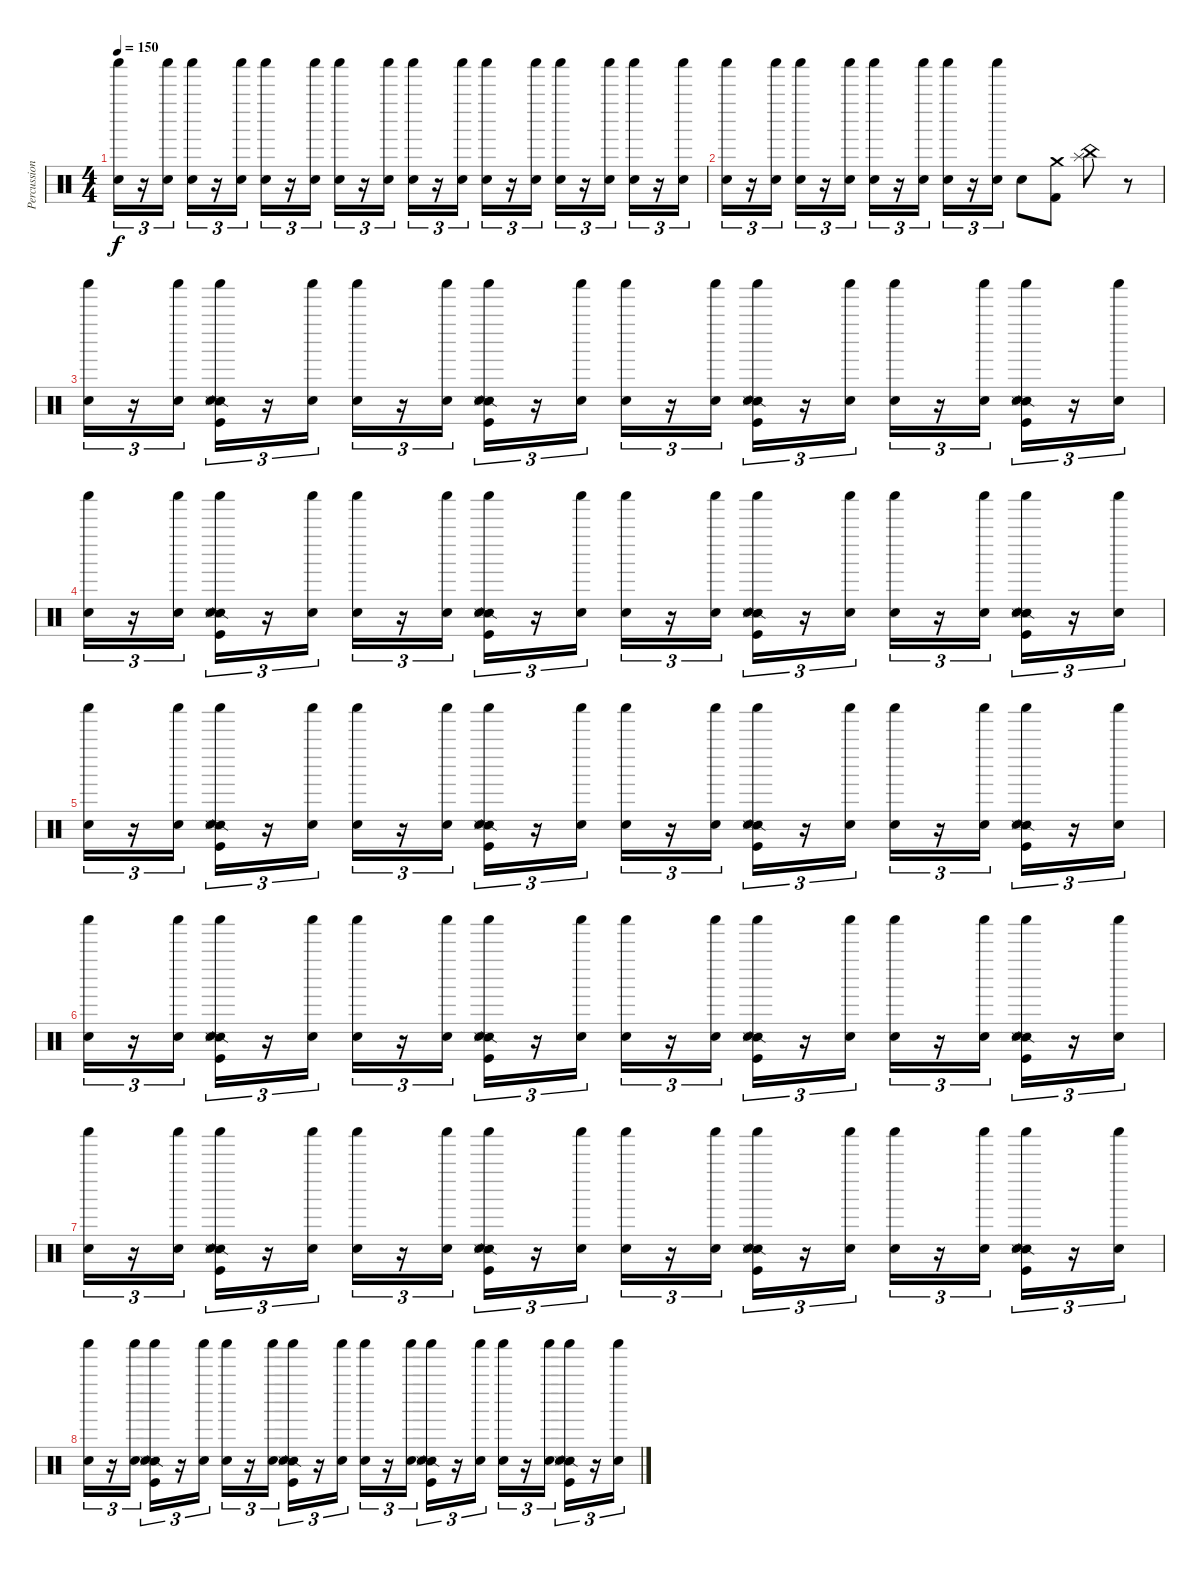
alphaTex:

\track ("Percussion" "Percussion") {instrument percussion}
\staff {score}
\articulation defaults
\ts (4 4)
\tempo 150
\clef neutral
\ks c
("Snare (hit) 2" "Shaker (hit)").16{tu (3 2) dy f} r.16{tu (3 2)} ("Snare (hit) 2" "Shaker (hit)").16{tu (3 2)} ("Snare (hit) 2" "Shaker (hit)").16{tu (3 2)} r.16{tu (3 2)} ("Snare (hit) 2" "Shaker (hit)").16{tu (3 2)} ("Snare (hit) 2" "Shaker (hit)").16{tu (3 2)} r.16{tu (3 2)} ("Snare (hit) 2" "Shaker (hit)").16{tu (3 2)} ("Snare (hit) 2" "Shaker (hit)").16{tu (3 2)} r.16{tu (3 2)} ("Snare (hit) 2" "Shaker (hit)").16{tu (3 2)} ("Snare (hit) 2" "Shaker (hit)").16{tu (3 2)} r.16{tu (3 2)} ("Snare (hit) 2" "Shaker (hit)").16{tu (3 2)} ("Snare (hit) 2" "Shaker (hit)").16{tu (3 2)} r.16{tu (3 2)} ("Snare (hit) 2" "Shaker (hit)").16{tu (3 2)} ("Snare (hit) 2" "Shaker (hit)").16{tu (3 2)} r.16{tu (3 2)} ("Snare (hit) 2" "Shaker (hit)").16{tu (3 2)} ("Snare (hit) 2" "Shaker (hit)").16{tu (3 2)} r.16{tu (3 2)} ("Snare (hit) 2" "Shaker (hit)").16{tu (3 2)} |
("Snare (hit) 2" "Shaker (hit)").16{tu (3 2)} r.16{tu (3 2)} ("Snare (hit) 2" "Shaker (hit)").16{tu (3 2)} ("Snare (hit) 2" "Shaker (hit)").16{tu (3 2)} r.16{tu (3 2)} ("Snare (hit) 2" "Shaker (hit)").16{tu (3 2)} ("Snare (hit) 2" "Shaker (hit)").16{tu (3 2)} r.16{tu (3 2)} ("Snare (hit) 2" "Shaker (hit)").16{tu (3 2)} ("Snare (hit) 2" "Shaker (hit)").16{tu (3 2)} r.16{tu (3 2)} ("Snare (hit) 2" "Shaker (hit)").16{tu (3 2)} "Snare (hit) 2".8 ("Crash medium (hit)" "Kick (hit) 2").8 ("Splash (hit)" "China (hit)").8 r.8 |
("Snare (hit) 2" "Shaker (hit)").16{tu (3 2)} r.16{tu (3 2)} ("Snare (hit) 2" "Shaker (hit)").16{tu (3 2)} ("Snare (side stick) 2" "Snare (hit) 2" "Shaker (hit)" "Metronome (hit)" "Kick (hit)").16{tu (3 2)} r.16{tu (3 2)} ("Snare (hit) 2" "Shaker (hit)").16{tu (3 2)} ("Snare (hit) 2" "Shaker (hit)").16{tu (3 2)} r.16{tu (3 2)} ("Snare (hit) 2" "Shaker (hit)").16{tu (3 2)} ("Snare (side stick) 2" "Snare (hit) 2" "Shaker (hit)" "Metronome (hit)" "Kick (hit)").16{tu (3 2)} r.16{tu (3 2)} ("Snare (hit) 2" "Shaker (hit)").16{tu (3 2)} ("Snare (hit) 2" "Shaker (hit)").16{tu (3 2)} r.16{tu (3 2)} ("Snare (hit) 2" "Shaker (hit)").16{tu (3 2)} ("Snare (side stick) 2" "Snare (hit) 2" "Shaker (hit)" "Metronome (hit)" "Kick (hit)").16{tu (3 2)} r.16{tu (3 2)} ("Snare (hit) 2" "Shaker (hit)").16{tu (3 2)} ("Snare (hit) 2" "Shaker (hit)").16{tu (3 2)} r.16{tu (3 2)} ("Snare (hit) 2" "Shaker (hit)").16{tu (3 2)} ("Snare (side stick) 2" "Snare (hit) 2" "Shaker (hit)" "Metronome (hit)" "Kick (hit)").16{tu (3 2)} r.16{tu (3 2)} ("Snare (hit) 2" "Shaker (hit)").16{tu (3 2)} |
("Snare (hit) 2" "Shaker (hit)").16{tu (3 2)} r.16{tu (3 2)} ("Snare (hit) 2" "Shaker (hit)").16{tu (3 2)} ("Snare (side stick) 2" "Snare (hit) 2" "Shaker (hit)" "Metronome (hit)" "Kick (hit)").16{tu (3 2)} r.16{tu (3 2)} ("Snare (hit) 2" "Shaker (hit)").16{tu (3 2)} ("Snare (hit) 2" "Shaker (hit)").16{tu (3 2)} r.16{tu (3 2)} ("Snare (hit) 2" "Shaker (hit)").16{tu (3 2)} ("Snare (side stick) 2" "Snare (hit) 2" "Shaker (hit)" "Metronome (hit)" "Kick (hit)").16{tu (3 2)} r.16{tu (3 2)} ("Snare (hit) 2" "Shaker (hit)").16{tu (3 2)} ("Snare (hit) 2" "Shaker (hit)").16{tu (3 2)} r.16{tu (3 2)} ("Snare (hit) 2" "Shaker (hit)").16{tu (3 2)} ("Snare (side stick) 2" "Snare (hit) 2" "Shaker (hit)" "Metronome (hit)" "Kick (hit)").16{tu (3 2)} r.16{tu (3 2)} ("Snare (hit) 2" "Shaker (hit)").16{tu (3 2)} ("Snare (hit) 2" "Shaker (hit)").16{tu (3 2)} r.16{tu (3 2)} ("Snare (hit) 2" "Shaker (hit)").16{tu (3 2)} ("Snare (side stick) 2" "Snare (hit) 2" "Shaker (hit)" "Metronome (hit)" "Kick (hit)").16{tu (3 2)} r.16{tu (3 2)} ("Snare (hit) 2" "Shaker (hit)").16{tu (3 2)} |
("Snare (hit) 2" "Shaker (hit)").16{tu (3 2)} r.16{tu (3 2)} ("Snare (hit) 2" "Shaker (hit)").16{tu (3 2)} ("Snare (side stick) 2" "Snare (hit) 2" "Shaker (hit)" "Metronome (hit)" "Kick (hit)").16{tu (3 2)} r.16{tu (3 2)} ("Snare (hit) 2" "Shaker (hit)").16{tu (3 2)} ("Snare (hit) 2" "Shaker (hit)").16{tu (3 2)} r.16{tu (3 2)} ("Snare (hit) 2" "Shaker (hit)").16{tu (3 2)} ("Snare (side stick) 2" "Snare (hit) 2" "Shaker (hit)" "Metronome (hit)" "Kick (hit)").16{tu (3 2)} r.16{tu (3 2)} ("Snare (hit) 2" "Shaker (hit)").16{tu (3 2)} ("Snare (hit) 2" "Shaker (hit)").16{tu (3 2)} r.16{tu (3 2)} ("Snare (hit) 2" "Shaker (hit)").16{tu (3 2)} ("Snare (side stick) 2" "Snare (hit) 2" "Shaker (hit)" "Metronome (hit)" "Kick (hit)").16{tu (3 2)} r.16{tu (3 2)} ("Snare (hit) 2" "Shaker (hit)").16{tu (3 2)} ("Snare (hit) 2" "Shaker (hit)").16{tu (3 2)} r.16{tu (3 2)} ("Snare (hit) 2" "Shaker (hit)").16{tu (3 2)} ("Snare (side stick) 2" "Snare (hit) 2" "Shaker (hit)" "Metronome (hit)" "Kick (hit)").16{tu (3 2)} r.16{tu (3 2)} ("Snare (hit) 2" "Shaker (hit)").16{tu (3 2)} |
("Snare (hit) 2" "Shaker (hit)").16{tu (3 2)} r.16{tu (3 2)} ("Snare (hit) 2" "Shaker (hit)").16{tu (3 2)} ("Snare (side stick) 2" "Snare (hit) 2" "Shaker (hit)" "Metronome (hit)" "Kick (hit)").16{tu (3 2)} r.16{tu (3 2)} ("Snare (hit) 2" "Shaker (hit)").16{tu (3 2)} ("Snare (hit) 2" "Shaker (hit)").16{tu (3 2)} r.16{tu (3 2)} ("Snare (hit) 2" "Shaker (hit)").16{tu (3 2)} ("Snare (side stick) 2" "Snare (hit) 2" "Shaker (hit)" "Metronome (hit)" "Kick (hit)").16{tu (3 2)} r.16{tu (3 2)} ("Snare (hit) 2" "Shaker (hit)").16{tu (3 2)} ("Snare (hit) 2" "Shaker (hit)").16{tu (3 2)} r.16{tu (3 2)} ("Snare (hit) 2" "Shaker (hit)").16{tu (3 2)} ("Snare (side stick) 2" "Snare (hit) 2" "Shaker (hit)" "Metronome (hit)" "Kick (hit)").16{tu (3 2)} r.16{tu (3 2)} ("Snare (hit) 2" "Shaker (hit)").16{tu (3 2)} ("Snare (hit) 2" "Shaker (hit)").16{tu (3 2)} r.16{tu (3 2)} ("Snare (hit) 2" "Shaker (hit)").16{tu (3 2)} ("Snare (side stick) 2" "Snare (hit) 2" "Shaker (hit)" "Metronome (hit)" "Kick (hit)").16{tu (3 2)} r.16{tu (3 2)} ("Snare (hit) 2" "Shaker (hit)").16{tu (3 2)} |
("Snare (hit) 2" "Shaker (hit)").16{tu (3 2)} r.16{tu (3 2)} ("Snare (hit) 2" "Shaker (hit)").16{tu (3 2)} ("Snare (side stick) 2" "Snare (hit) 2" "Shaker (hit)" "Metronome (hit)" "Kick (hit)").16{tu (3 2)} r.16{tu (3 2)} ("Snare (hit) 2" "Shaker (hit)").16{tu (3 2)} ("Snare (hit) 2" "Shaker (hit)").16{tu (3 2)} r.16{tu (3 2)} ("Snare (hit) 2" "Shaker (hit)").16{tu (3 2)} ("Snare (side stick) 2" "Snare (hit) 2" "Shaker (hit)" "Metronome (hit)" "Kick (hit)").16{tu (3 2)} r.16{tu (3 2)} ("Snare (hit) 2" "Shaker (hit)").16{tu (3 2)} ("Snare (hit) 2" "Shaker (hit)").16{tu (3 2)} r.16{tu (3 2)} ("Snare (hit) 2" "Shaker (hit)").16{tu (3 2)} ("Snare (side stick) 2" "Snare (hit) 2" "Shaker (hit)" "Metronome (hit)" "Kick (hit)").16{tu (3 2)} r.16{tu (3 2)} ("Snare (hit) 2" "Shaker (hit)").16{tu (3 2)} ("Snare (hit) 2" "Shaker (hit)").16{tu (3 2)} r.16{tu (3 2)} ("Snare (hit) 2" "Shaker (hit)").16{tu (3 2)} ("Snare (side stick) 2" "Snare (hit) 2" "Shaker (hit)" "Metronome (hit)" "Kick (hit)").16{tu (3 2)} r.16{tu (3 2)} ("Snare (hit) 2" "Shaker (hit)").16{tu (3 2)} |
("Snare (hit) 2" "Shaker (hit)").16{tu (3 2)} r.16{tu (3 2)} ("Snare (hit) 2" "Shaker (hit)").16{tu (3 2)} ("Snare (side stick) 2" "Snare (hit) 2" "Shaker (hit)" "Metronome (hit)" "Kick (hit)").16{tu (3 2)} r.16{tu (3 2)} ("Snare (hit) 2" "Shaker (hit)").16{tu (3 2)} ("Snare (hit) 2" "Shaker (hit)").16{tu (3 2)} r.16{tu (3 2)} ("Snare (hit) 2" "Shaker (hit)").16{tu (3 2)} ("Snare (side stick) 2" "Snare (hit) 2" "Shaker (hit)" "Metronome (hit)" "Kick (hit)").16{tu (3 2)} r.16{tu (3 2)} ("Snare (hit) 2" "Shaker (hit)").16{tu (3 2)} ("Snare (hit) 2" "Shaker (hit)").16{tu (3 2)} r.16{tu (3 2)} ("Snare (hit) 2" "Shaker (hit)").16{tu (3 2)} ("Snare (side stick) 2" "Snare (hit) 2" "Shaker (hit)" "Metronome (hit)" "Kick (hit)").16{tu (3 2)} r.16{tu (3 2)} ("Snare (hit) 2" "Shaker (hit)").16{tu (3 2)} ("Snare (hit) 2" "Shaker (hit)").16{tu (3 2)} r.16{tu (3 2)} ("Snare (hit) 2" "Shaker (hit)").16{tu (3 2)} ("Snare (side stick) 2" "Snare (hit) 2" "Shaker (hit)" "Metronome (hit)" "Kick (hit)").16{tu (3 2)} r.16{tu (3 2)} ("Snare (hit) 2" "Shaker (hit)").16{tu (3 2)}
